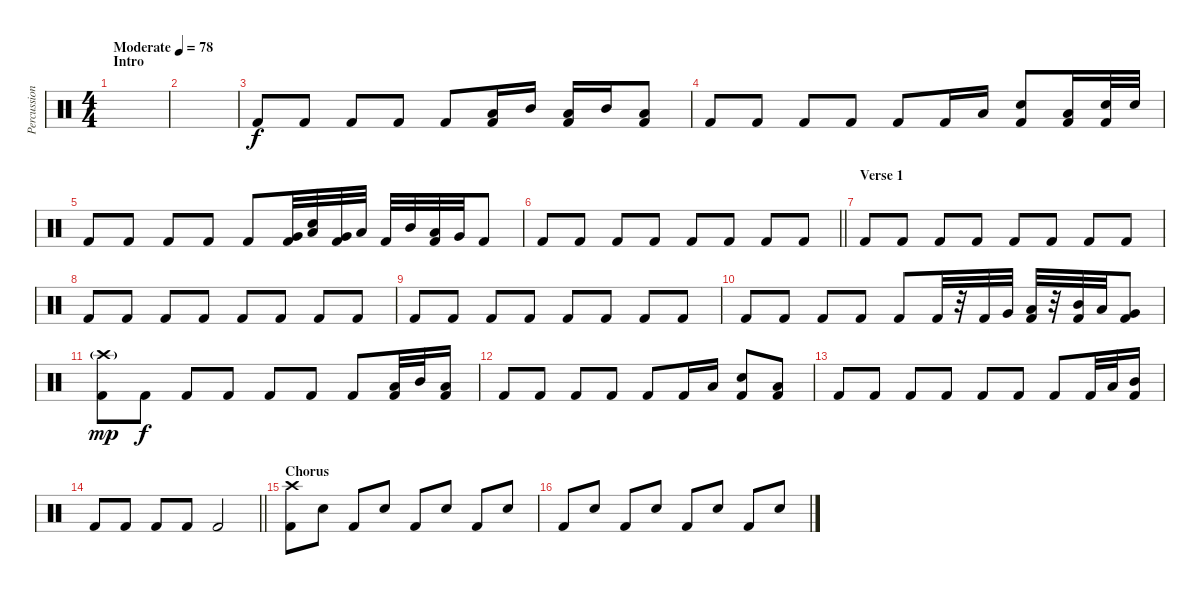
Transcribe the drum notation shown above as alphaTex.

\track ("Percussion" "Percussion") {instrument percussion}
\staff {score}
\articulation defaults
\ts (4 4)
\section ("" "Intro")
\tempo (78 "Moderate")
\clef neutral
\ks c
|
|
"Kick (hit) 2".8 "Kick (hit) 2".8 "Kick (hit) 2".8 "Kick (hit) 2".8 "Kick (hit) 2".8 ("Kick (hit) 2" "Low Tom (hit)").16 "Mid Tom (hit)".16 ("Kick (hit) 2" "Low Tom (hit)").16 "Mid Tom (hit)".16 ("Kick (hit) 2" "Low Tom (hit)").8 |
"Kick (hit) 2".8 "Kick (hit) 2".8 "Kick (hit) 2".8 "Kick (hit) 2".8 "Kick (hit) 2".8 "Kick (hit) 2".16 "Low Tom (hit)".16 ("Kick (hit) 2" "Electric Snare (hit)").8 ("Kick (hit) 2" "Low Tom (hit)").16 ("Kick (hit) 2" "Electric Snare (hit)").32 "Electric Snare (hit)".32 |
"Kick (hit) 2".8 "Kick (hit) 2".8 "Kick (hit) 2".8 "Kick (hit) 2".8 "Kick (hit) 2".8 ("Kick (hit) 2" "Very Low Tom (hit)").32 ("Low Tom (hit)" "Electric Snare (hit)").32 ("Kick (hit) 2" "Very Low Tom (hit)").32 "Low Tom (hit)".32 "Kick (hit) 2".32 "Mid Tom (hit)".32 ("Kick (hit) 2" "Low Tom (hit)").32 "Very Low Tom (hit)".32 "Kick (hit) 2".8 |
\barLineRight lightlight "Kick (hit) 2".8 "Kick (hit) 2".8 "Kick (hit) 2".8 "Kick (hit) 2".8 "Kick (hit) 2".8 "Kick (hit) 2".8 "Kick (hit) 2".8 "Kick (hit) 2".8
|
\section ("" "Verse 1")
"Kick (hit) 2".8 "Kick (hit) 2".8 "Kick (hit) 2".8 "Kick (hit) 2".8 "Kick (hit) 2".8 "Kick (hit) 2".8 "Kick (hit) 2".8 "Kick (hit) 2".8 |
"Kick (hit) 2".8 "Kick (hit) 2".8 "Kick (hit) 2".8 "Kick (hit) 2".8 "Kick (hit) 2".8 "Kick (hit) 2".8 "Kick (hit) 2".8 "Kick (hit) 2".8 |
"Kick (hit) 2".8 "Kick (hit) 2".8 "Kick (hit) 2".8 "Kick (hit) 2".8 "Kick (hit) 2".8 "Kick (hit) 2".8 "Kick (hit) 2".8 "Kick (hit) 2".8 |
"Kick (hit) 2".8 "Kick (hit) 2".8 "Kick (hit) 2".8 "Kick (hit) 2".8 "Kick (hit) 2".8 "Kick (hit) 2".32 r.32 "Kick (hit) 2".32 "Very Low Tom (hit)".32 ("Kick (hit) 2" "Low Tom (hit)").32 r.32 ("Kick (hit) 2" "Mid Tom (hit)").32 "Low Tom (hit)".32 ("Kick (hit) 2" "Very Low Tom (hit)").8 |
("Kick (hit) 2" "Crash high (hit)"{g}).8{dy mp} "Kick (hit) 2".8{dy f} "Kick (hit) 2".8 "Kick (hit) 2".8 "Kick (hit) 2".8 "Kick (hit) 2".8 "Kick (hit) 2".8 ("Kick (hit) 2" "Low Tom (hit)").32 "Mid Tom (hit)".32 ("Kick (hit) 2" "Low Tom (hit)").16 |
"Kick (hit) 2".8 "Kick (hit) 2".8 "Kick (hit) 2".8 "Kick (hit) 2".8 "Kick (hit) 2".8 "Kick (hit) 2".16 "Low Tom (hit)".16 ("Kick (hit) 2" "Electric Snare (hit)").8 ("Kick (hit) 2" "Low Tom (hit)").8 |
"Kick (hit) 2".8 "Kick (hit) 2".8 "Kick (hit) 2".8 "Kick (hit) 2".8 "Kick (hit) 2".8 "Kick (hit) 2".8 "Kick (hit) 2".8 "Kick (hit) 2".32 "Low Tom (hit)".32 ("Kick (hit) 2" "Mid Tom (hit)").16 |
\barLineRight lightlight "Kick (hit) 2".8 "Kick (hit) 2".8 "Kick (hit) 2".8 "Kick (hit) 2".8 "Kick (hit) 2".2
|
\section ("" "Chorus")
("Kick (hit) 2" "Crash high (hit)").8 "Snare (hit) 2".8 "Kick (hit) 2".8 "Snare (hit) 2".8 "Kick (hit) 2".8 "Snare (hit) 2".8 "Kick (hit) 2".8 "Snare (hit) 2".8 |
"Kick (hit) 2".8 "Snare (hit) 2".8 "Kick (hit) 2".8 "Snare (hit) 2".8 "Kick (hit) 2".8 "Snare (hit) 2".8 "Kick (hit) 2".8 "Snare (hit) 2".8
